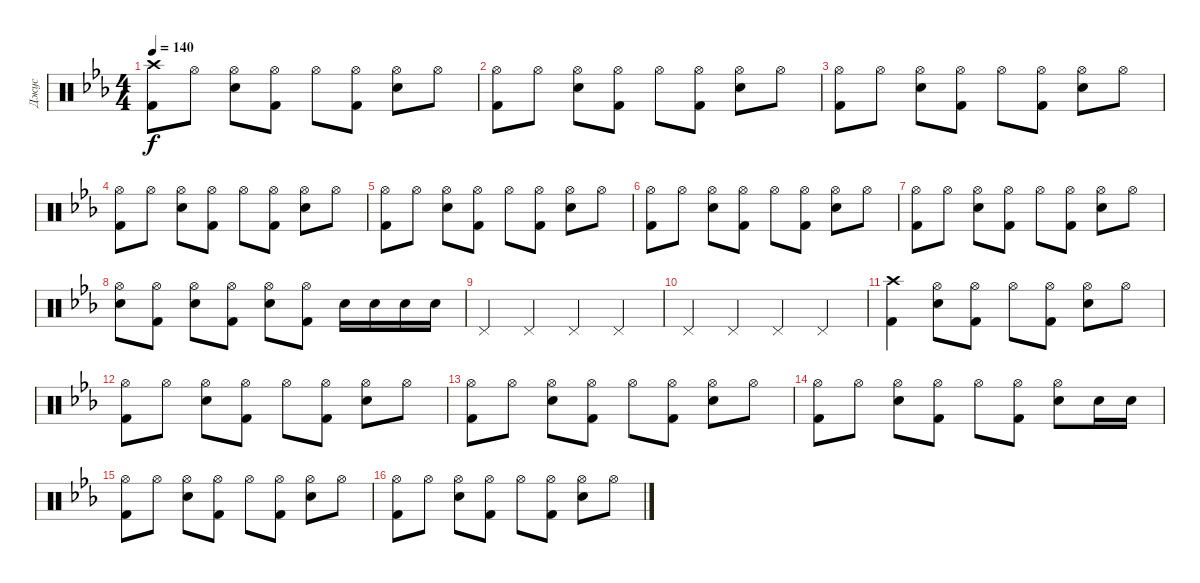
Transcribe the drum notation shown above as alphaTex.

\track ("Джус" "Джус") {instrument percussion}
\staff {score}
\articulation defaults
\ts (4 4)
\tempo 140
\clef neutral
\ks eb
("Crash high (hit)" "Kick (hit) 2").8{dy f} "Hi-Hat (open)".8 ("Hi-Hat (open)" "Electric Snare (hit)").8 ("Hi-Hat (open)" "Kick (hit) 2").8 "Hi-Hat (open)".8 ("Hi-Hat (open)" "Kick (hit) 2").8 ("Hi-Hat (open)" "Electric Snare (hit)").8 "Hi-Hat (open)".8 |
("Hi-Hat (open)" "Kick (hit) 2").8 "Hi-Hat (open)".8 ("Hi-Hat (open)" "Electric Snare (hit)").8 ("Hi-Hat (open)" "Kick (hit) 2").8 "Hi-Hat (open)".8 ("Hi-Hat (open)" "Kick (hit) 2").8 ("Hi-Hat (open)" "Electric Snare (hit)").8 "Hi-Hat (open)".8 |
("Hi-Hat (open)" "Kick (hit) 2").8 "Hi-Hat (open)".8 ("Hi-Hat (open)" "Electric Snare (hit)").8 ("Hi-Hat (open)" "Kick (hit) 2").8 "Hi-Hat (open)".8 ("Hi-Hat (open)" "Kick (hit) 2").8 ("Hi-Hat (open)" "Electric Snare (hit)").8 "Hi-Hat (open)".8 |
("Hi-Hat (open)" "Kick (hit) 2").8 "Hi-Hat (open)".8 ("Hi-Hat (open)" "Electric Snare (hit)").8 ("Hi-Hat (open)" "Kick (hit) 2").8 "Hi-Hat (open)".8 ("Hi-Hat (open)" "Kick (hit) 2").8 ("Hi-Hat (open)" "Electric Snare (hit)").8 "Hi-Hat (open)".8 |
("Hi-Hat (open)" "Kick (hit) 2").8 "Hi-Hat (open)".8 ("Hi-Hat (open)" "Electric Snare (hit)").8 ("Hi-Hat (open)" "Kick (hit) 2").8 "Hi-Hat (open)".8 ("Hi-Hat (open)" "Kick (hit) 2").8 ("Hi-Hat (open)" "Electric Snare (hit)").8 "Hi-Hat (open)".8 |
("Hi-Hat (open)" "Kick (hit) 2").8 "Hi-Hat (open)".8 ("Hi-Hat (open)" "Electric Snare (hit)").8 ("Hi-Hat (open)" "Kick (hit) 2").8 "Hi-Hat (open)".8 ("Hi-Hat (open)" "Kick (hit) 2").8 ("Hi-Hat (open)" "Electric Snare (hit)").8 "Hi-Hat (open)".8 |
("Hi-Hat (open)" "Kick (hit) 2").8 "Hi-Hat (open)".8 ("Hi-Hat (open)" "Electric Snare (hit)").8 ("Hi-Hat (open)" "Kick (hit) 2").8 "Hi-Hat (open)".8 ("Hi-Hat (open)" "Kick (hit) 2").8 ("Hi-Hat (open)" "Electric Snare (hit)").8 "Hi-Hat (open)".8 |
("Hi-Hat (open)" "Electric Snare (hit)").8 ("Hi-Hat (open)" "Kick (hit) 2").8 ("Hi-Hat (open)" "Electric Snare (hit)").8 ("Hi-Hat (open)" "Kick (hit) 2").8 ("Hi-Hat (open)" "Electric Snare (hit)").8 ("Hi-Hat (open)" "Kick (hit) 2").8 "Electric Snare (hit)".16 "Electric Snare (hit)".16 "Electric Snare (hit)".16 "Electric Snare (hit)".16 |
"Pedal Hi-Hat (hit)".4{volume 8} "Pedal Hi-Hat (hit)".4 "Pedal Hi-Hat (hit)".4 "Pedal Hi-Hat (hit)".4 |
"Pedal Hi-Hat (hit)".4 "Pedal Hi-Hat (hit)".4 "Pedal Hi-Hat (hit)".4 "Pedal Hi-Hat (hit)".4 |
("Crash high (hit)" "Kick (hit) 2").4{volume 16} ("Hi-Hat (open)" "Electric Snare (hit)").8 ("Hi-Hat (open)" "Kick (hit) 2").8 "Hi-Hat (open)".8 ("Hi-Hat (open)" "Kick (hit) 2").8 ("Hi-Hat (open)" "Electric Snare (hit)").8 "Hi-Hat (open)".8 |
("Hi-Hat (open)" "Kick (hit) 2").8 "Hi-Hat (open)".8 ("Hi-Hat (open)" "Electric Snare (hit)").8 ("Hi-Hat (open)" "Kick (hit) 2").8 "Hi-Hat (open)".8 ("Hi-Hat (open)" "Kick (hit) 2").8 ("Hi-Hat (open)" "Electric Snare (hit)").8 "Hi-Hat (open)".8 |
("Hi-Hat (open)" "Kick (hit) 2").8 "Hi-Hat (open)".8 ("Hi-Hat (open)" "Electric Snare (hit)").8 ("Hi-Hat (open)" "Kick (hit) 2").8 "Hi-Hat (open)".8 ("Hi-Hat (open)" "Kick (hit) 2").8 ("Hi-Hat (open)" "Electric Snare (hit)").8 "Hi-Hat (open)".8 |
("Hi-Hat (open)" "Kick (hit) 2").8 "Hi-Hat (open)".8 ("Hi-Hat (open)" "Electric Snare (hit)").8 ("Hi-Hat (open)" "Kick (hit) 2").8 "Hi-Hat (open)".8 ("Hi-Hat (open)" "Kick (hit) 2").8 ("Hi-Hat (open)" "Electric Snare (hit)").8 "Electric Snare (hit)".16 "Electric Snare (hit)".16 |
("Hi-Hat (open)" "Kick (hit) 2").8 "Hi-Hat (open)".8 ("Hi-Hat (open)" "Electric Snare (hit)").8 ("Hi-Hat (open)" "Kick (hit) 2").8 "Hi-Hat (open)".8 ("Hi-Hat (open)" "Kick (hit) 2").8 ("Hi-Hat (open)" "Electric Snare (hit)").8 "Hi-Hat (open)".8 |
("Hi-Hat (open)" "Kick (hit) 2").8 "Hi-Hat (open)".8 ("Hi-Hat (open)" "Electric Snare (hit)").8 ("Hi-Hat (open)" "Kick (hit) 2").8 "Hi-Hat (open)".8 ("Hi-Hat (open)" "Kick (hit) 2").8 ("Hi-Hat (open)" "Electric Snare (hit)").8 "Hi-Hat (open)".8
